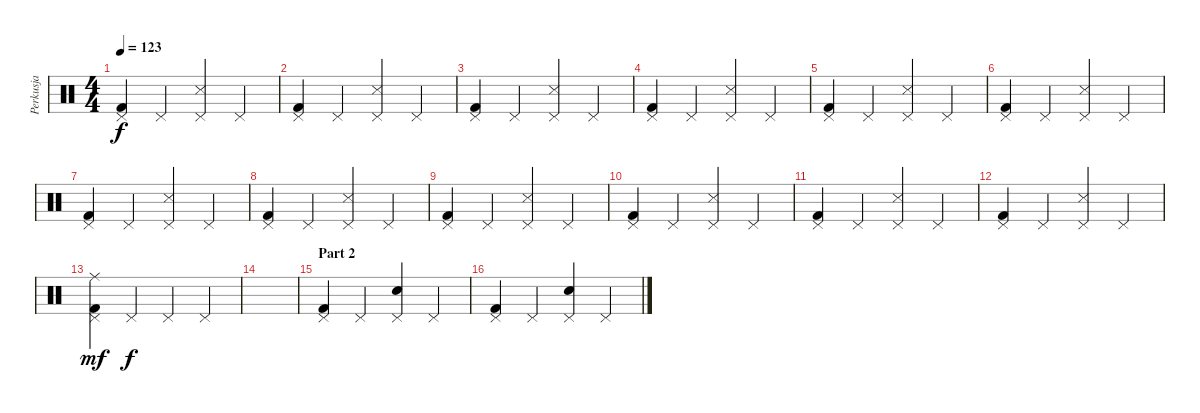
\track ("Perkusja" "Perkusja") {instrument percussion}
\staff {score}
\articulation defaults
\ts (4 4)
\tempo 123
\clef neutral
\ks c
("Kick (hit) 2" "Pedal Hi-Hat (hit)").4{dy f} "Pedal Hi-Hat (hit)".4 ("Snare (side stick) 3" "Pedal Hi-Hat (hit)").4 "Pedal Hi-Hat (hit)".4 |
("Kick (hit) 2" "Pedal Hi-Hat (hit)").4 "Pedal Hi-Hat (hit)".4 ("Snare (side stick) 3" "Pedal Hi-Hat (hit)").4 "Pedal Hi-Hat (hit)".4 |
("Kick (hit) 2" "Pedal Hi-Hat (hit)").4 "Pedal Hi-Hat (hit)".4 ("Snare (side stick) 3" "Pedal Hi-Hat (hit)").4 "Pedal Hi-Hat (hit)".4 |
("Kick (hit) 2" "Pedal Hi-Hat (hit)").4 "Pedal Hi-Hat (hit)".4 ("Snare (side stick) 3" "Pedal Hi-Hat (hit)").4 "Pedal Hi-Hat (hit)".4 |
("Kick (hit) 2" "Pedal Hi-Hat (hit)").4 "Pedal Hi-Hat (hit)".4 ("Snare (side stick) 3" "Pedal Hi-Hat (hit)").4 "Pedal Hi-Hat (hit)".4 |
("Kick (hit) 2" "Pedal Hi-Hat (hit)").4 "Pedal Hi-Hat (hit)".4 ("Snare (side stick) 3" "Pedal Hi-Hat (hit)").4 "Pedal Hi-Hat (hit)".4 |
("Kick (hit) 2" "Pedal Hi-Hat (hit)").4 "Pedal Hi-Hat (hit)".4 ("Snare (side stick) 3" "Pedal Hi-Hat (hit)").4 "Pedal Hi-Hat (hit)".4 |
("Kick (hit) 2" "Pedal Hi-Hat (hit)").4 "Pedal Hi-Hat (hit)".4 ("Snare (side stick) 3" "Pedal Hi-Hat (hit)").4 "Pedal Hi-Hat (hit)".4 |
("Kick (hit) 2" "Pedal Hi-Hat (hit)").4 "Pedal Hi-Hat (hit)".4 ("Snare (side stick) 3" "Pedal Hi-Hat (hit)").4 "Pedal Hi-Hat (hit)".4 |
("Kick (hit) 2" "Pedal Hi-Hat (hit)").4 "Pedal Hi-Hat (hit)".4 ("Snare (side stick) 3" "Pedal Hi-Hat (hit)").4 "Pedal Hi-Hat (hit)".4 |
("Kick (hit) 2" "Pedal Hi-Hat (hit)").4 "Pedal Hi-Hat (hit)".4 ("Snare (side stick) 3" "Pedal Hi-Hat (hit)").4 "Pedal Hi-Hat (hit)".4 |
("Kick (hit) 2" "Pedal Hi-Hat (hit)").4 "Pedal Hi-Hat (hit)".4 ("Snare (side stick) 3" "Pedal Hi-Hat (hit)").4 "Pedal Hi-Hat (hit)".4 |
("Ride (middle)" "Kick (hit) 2" "Pedal Hi-Hat (hit)").4{dy mf} "Pedal Hi-Hat (hit)".4{dy f} "Pedal Hi-Hat (hit)".4 "Pedal Hi-Hat (hit)".4 |
|
\section ("" "Part 2")
("Kick (hit) 2" "Pedal Hi-Hat (hit)").4 "Pedal Hi-Hat (hit)".4 ("Snare (hit) 2" "Pedal Hi-Hat (hit)").4 "Pedal Hi-Hat (hit)".4 |
("Kick (hit) 2" "Pedal Hi-Hat (hit)").4 "Pedal Hi-Hat (hit)".4 ("Snare (hit) 2" "Pedal Hi-Hat (hit)").4 "Pedal Hi-Hat (hit)".4
